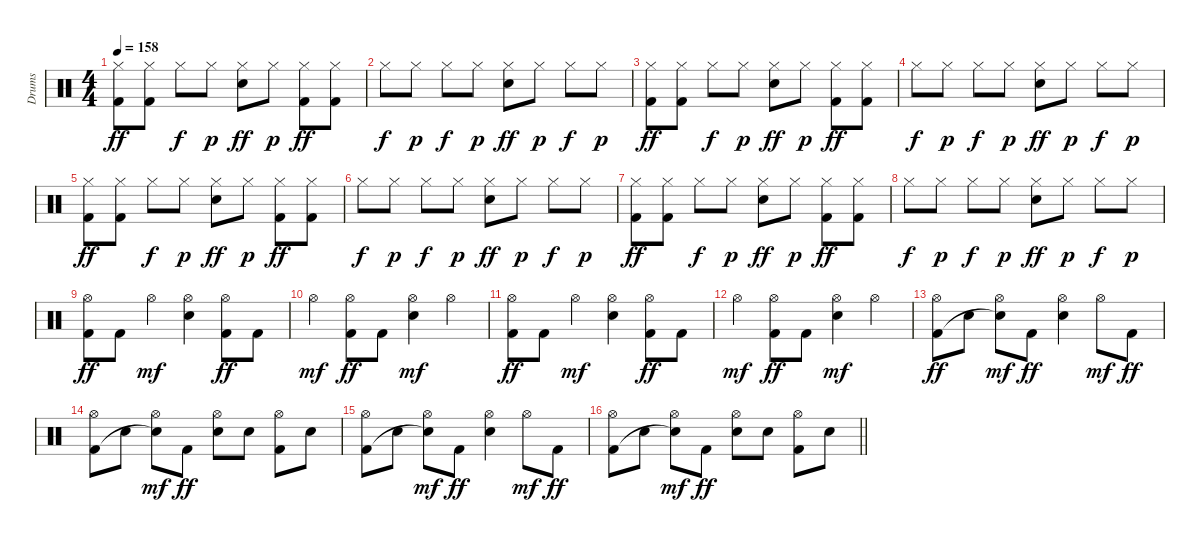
\track ("Drums" "Drums") {instrument percussion}
\staff {score}
\articulation defaults
\ts (4 4)
\tempo 158
\clef neutral
\ks c
("Hi-Hat (closed)" "Kick (hit) 2").8{dy ff} ("Hi-Hat (closed)" "Kick (hit) 2").8 "Hi-Hat (closed)".8{dy f} "Hi-Hat (closed)".8{dy p} ("Hi-Hat (closed)" "Electric Snare (hit)").8{dy ff} "Hi-Hat (closed)".8{dy p} ("Hi-Hat (closed)" "Kick (hit) 2").8{dy ff} ("Hi-Hat (closed)" "Kick (hit) 2").8 |
"Hi-Hat (closed)".8{dy f} "Hi-Hat (closed)".8{dy p} "Hi-Hat (closed)".8{dy f} "Hi-Hat (closed)".8{dy p} ("Hi-Hat (closed)" "Electric Snare (hit)").8{dy ff} "Hi-Hat (closed)".8{dy p} "Hi-Hat (closed)".8{dy f} "Hi-Hat (closed)".8{dy p} |
("Hi-Hat (closed)" "Kick (hit) 2").8{dy ff} ("Hi-Hat (closed)" "Kick (hit) 2").8 "Hi-Hat (closed)".8{dy f} "Hi-Hat (closed)".8{dy p} ("Hi-Hat (closed)" "Electric Snare (hit)").8{dy ff} "Hi-Hat (closed)".8{dy p} ("Hi-Hat (closed)" "Kick (hit) 2").8{dy ff} ("Hi-Hat (closed)" "Kick (hit) 2").8 |
"Hi-Hat (closed)".8{dy f} "Hi-Hat (closed)".8{dy p} "Hi-Hat (closed)".8{dy f} "Hi-Hat (closed)".8{dy p} ("Hi-Hat (closed)" "Electric Snare (hit)").8{dy ff} "Hi-Hat (closed)".8{dy p} "Hi-Hat (closed)".8{dy f} "Hi-Hat (closed)".8{dy p} |
("Hi-Hat (closed)" "Kick (hit) 2").8{dy ff} ("Hi-Hat (closed)" "Kick (hit) 2").8 "Hi-Hat (closed)".8{dy f} "Hi-Hat (closed)".8{dy p} ("Hi-Hat (closed)" "Electric Snare (hit)").8{dy ff} "Hi-Hat (closed)".8{dy p} ("Hi-Hat (closed)" "Kick (hit) 2").8{dy ff} ("Hi-Hat (closed)" "Kick (hit) 2").8 |
"Hi-Hat (closed)".8{dy f} "Hi-Hat (closed)".8{dy p} "Hi-Hat (closed)".8{dy f} "Hi-Hat (closed)".8{dy p} ("Hi-Hat (closed)" "Electric Snare (hit)").8{dy ff} "Hi-Hat (closed)".8{dy p} "Hi-Hat (closed)".8{dy f} "Hi-Hat (closed)".8{dy p} |
("Hi-Hat (closed)" "Kick (hit) 2").8{dy ff} ("Hi-Hat (closed)" "Kick (hit) 2").8 "Hi-Hat (closed)".8{dy f} "Hi-Hat (closed)".8{dy p} ("Hi-Hat (closed)" "Electric Snare (hit)").8{dy ff} "Hi-Hat (closed)".8{dy p} ("Hi-Hat (closed)" "Kick (hit) 2").8{dy ff} ("Hi-Hat (closed)" "Kick (hit) 2").8 |
"Hi-Hat (closed)".8{dy f} "Hi-Hat (closed)".8{dy p} "Hi-Hat (closed)".8{dy f} "Hi-Hat (closed)".8{dy p} ("Hi-Hat (closed)" "Electric Snare (hit)").8{dy ff} "Hi-Hat (closed)".8{dy p} "Hi-Hat (closed)".8{dy f} "Hi-Hat (closed)".8{dy p} |
("Hi-Hat (open)" "Kick (hit) 2").8{dy ff} "Kick (hit) 2".8 "Hi-Hat (open)".4{dy mf} ("Hi-Hat (open)" "Electric Snare (hit)").4 ("Hi-Hat (open)" "Kick (hit) 2").8{dy ff} "Kick (hit) 2".8 |
"Hi-Hat (open)".4{dy mf} ("Hi-Hat (open)" "Kick (hit) 2").8{dy ff} "Kick (hit) 2".8 ("Hi-Hat (open)" "Electric Snare (hit)").4{dy mf} "Hi-Hat (open)".4 |
("Hi-Hat (open)" "Kick (hit) 2").8{dy ff} "Kick (hit) 2".8 "Hi-Hat (open)".4{dy mf} ("Hi-Hat (open)" "Electric Snare (hit)").4 ("Hi-Hat (open)" "Kick (hit) 2").8{dy ff} "Kick (hit) 2".8 |
"Hi-Hat (open)".4{dy mf} ("Hi-Hat (open)" "Kick (hit) 2").8{dy ff} "Kick (hit) 2".8 ("Hi-Hat (open)" "Electric Snare (hit)").4{dy mf} "Hi-Hat (open)".4 |
("Hi-Hat (open)" "Kick (hit) 2").8{dy ff} "Electric Snare (hit)".8 ("Hi-Hat (open)" "Snare (hit)"{t}).8{dy mf} "Kick (hit) 2".8{dy ff} ("Hi-Hat (open)" "Electric Snare (hit)").4 "Hi-Hat (open)".8{dy mf} "Kick (hit) 2".8{dy ff} |
("Hi-Hat (open)" "Kick (hit) 2").8 "Electric Snare (hit)".8 ("Hi-Hat (open)" "Snare (hit)"{t}).8{dy mf} "Kick (hit) 2".8{dy ff} ("Hi-Hat (open)" "Electric Snare (hit)").8 "Electric Snare (hit)".8 ("Hi-Hat (open)" "Kick (hit) 2").8 "Electric Snare (hit)".8 |
("Hi-Hat (open)" "Kick (hit) 2").8 "Electric Snare (hit)".8 ("Hi-Hat (open)" "Snare (hit)"{t}).8{dy mf} "Kick (hit) 2".8{dy ff} ("Hi-Hat (open)" "Electric Snare (hit)").4 "Hi-Hat (open)".8{dy mf} "Kick (hit) 2".8{dy ff} |
\barLineRight lightlight
("Hi-Hat (open)" "Kick (hit) 2").8 "Electric Snare (hit)".8 ("Hi-Hat (open)" "Snare (hit)"{t}).8{dy mf} "Kick (hit) 2".8{dy ff} ("Hi-Hat (open)" "Electric Snare (hit)").8 "Electric Snare (hit)".8 ("Hi-Hat (open)" "Kick (hit) 2").8 "Electric Snare (hit)".8
